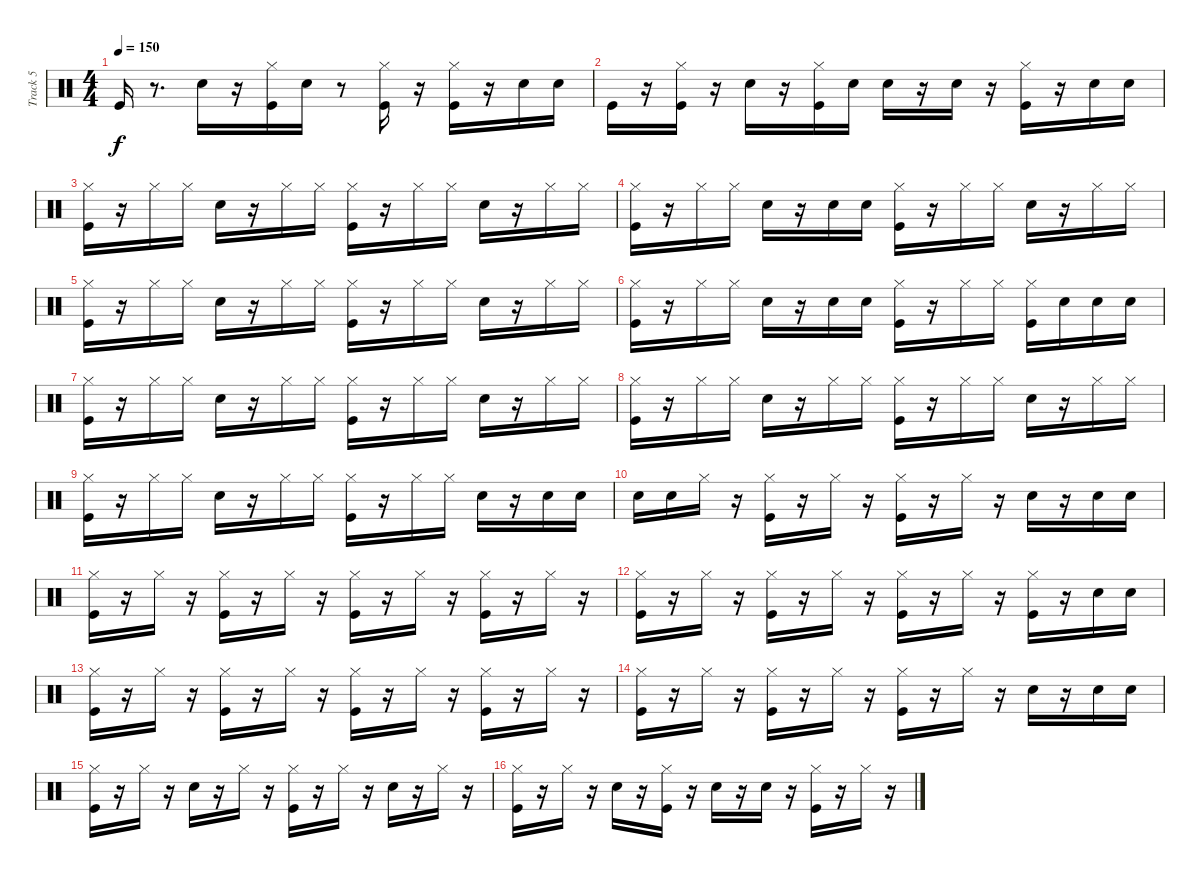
\track ("Track 5" "Track 5") {instrument percussion}
\staff {score}
\articulation defaults
\ts (4 4)
\tempo 150
\clef neutral
\ks c "Kick (hit)".16{dy f}
r.8{d} "Snare (hit) 2".16 r.16 ("Kick (hit)" "Hi-Hat (closed)").16 "Snare (hit) 2".16 r.8 ("Kick (hit)" "Hi-Hat (closed)").16 r.16 ("Kick (hit)" "Hi-Hat (closed)").16 r.16 "Snare (hit) 2".16 "Snare (hit) 2".16 |
"Kick (hit)".16 r.16 ("Kick (hit)" "Hi-Hat (closed)").16 r.16 "Snare (hit) 2".16 r.16 ("Kick (hit)" "Hi-Hat (closed)").16 "Snare (hit) 2".16 "Snare (hit) 2".16 r.16 "Snare (hit) 2".16 r.16 ("Kick (hit)" "Hi-Hat (closed)").16 r.16 "Snare (hit) 2".16 "Snare (hit) 2".16 |
("Kick (hit)" "Hi-Hat (closed)").16 r.16 "Hi-Hat (closed)".16 "Hi-Hat (closed)".16 "Snare (hit) 2".16 r.16 "Hi-Hat (closed)".16 "Hi-Hat (closed)".16 ("Kick (hit)" "Hi-Hat (closed)").16 r.16 "Hi-Hat (closed)".16 "Hi-Hat (closed)".16 "Snare (hit) 2".16 r.16 "Hi-Hat (closed)".16 "Hi-Hat (closed)".16 |
("Kick (hit)" "Hi-Hat (closed)").16 r.16 "Hi-Hat (closed)".16 "Hi-Hat (closed)".16 "Snare (hit) 2".16 r.16 "Snare (hit) 2".16 "Snare (hit) 2".16 ("Kick (hit)" "Hi-Hat (closed)").16 r.16 "Hi-Hat (closed)".16 "Hi-Hat (closed)".16 "Snare (hit) 2".16 r.16 "Hi-Hat (closed)".16 "Hi-Hat (closed)".16 |
("Kick (hit)" "Hi-Hat (closed)").16 r.16 "Hi-Hat (closed)".16 "Hi-Hat (closed)".16 "Snare (hit) 2".16 r.16 "Hi-Hat (closed)".16 "Hi-Hat (closed)".16 ("Kick (hit)" "Hi-Hat (closed)").16 r.16 "Hi-Hat (closed)".16 "Hi-Hat (closed)".16 "Snare (hit) 2".16 r.16 "Hi-Hat (closed)".16 "Hi-Hat (closed)".16 |
("Kick (hit)" "Hi-Hat (closed)").16 r.16 "Hi-Hat (closed)".16 "Hi-Hat (closed)".16 "Snare (hit) 2".16 r.16 "Snare (hit) 2".16 "Snare (hit) 2".16 ("Kick (hit)" "Hi-Hat (closed)").16 r.16 "Hi-Hat (closed)".16 "Hi-Hat (closed)".16 ("Kick (hit)" "Hi-Hat (closed)").16 "Snare (hit) 2".16 "Snare (hit) 2".16 "Snare (hit) 2".16 |
("Kick (hit)" "Hi-Hat (closed)").16 r.16 "Hi-Hat (closed)".16 "Hi-Hat (closed)".16 "Snare (hit) 2".16 r.16 "Hi-Hat (closed)".16 "Hi-Hat (closed)".16 ("Kick (hit)" "Hi-Hat (closed)").16 r.16 "Hi-Hat (closed)".16 "Hi-Hat (closed)".16 "Snare (hit) 2".16 r.16 "Hi-Hat (closed)".16 "Hi-Hat (closed)".16 |
("Kick (hit)" "Hi-Hat (closed)").16 r.16 "Hi-Hat (closed)".16 "Hi-Hat (closed)".16 "Snare (hit) 2".16 r.16 "Hi-Hat (closed)".16 "Hi-Hat (closed)".16 ("Kick (hit)" "Hi-Hat (closed)").16 r.16 "Hi-Hat (closed)".16 "Hi-Hat (closed)".16 "Snare (hit) 2".16 r.16 "Hi-Hat (closed)".16 "Hi-Hat (closed)".16 |
("Kick (hit)" "Hi-Hat (closed)").16 r.16 "Hi-Hat (closed)".16 "Hi-Hat (closed)".16 "Snare (hit) 2".16 r.16 "Hi-Hat (closed)".16 "Hi-Hat (closed)".16 ("Kick (hit)" "Hi-Hat (closed)").16 r.16 "Hi-Hat (closed)".16 "Hi-Hat (closed)".16 "Snare (hit) 2".16 r.16 "Snare (hit) 2".16 "Snare (hit) 2".16 |
"Snare (hit) 2".16 "Snare (hit) 2".16 "Hi-Hat (closed)".16 r.16 ("Kick (hit)" "Hi-Hat (closed)").16 r.16 "Hi-Hat (closed)".16 r.16 ("Kick (hit)" "Hi-Hat (closed)").16 r.16 "Hi-Hat (closed)".16 r.16 "Snare (hit) 2".16 r.16 "Snare (hit) 2".16 "Snare (hit) 2".16 |
("Kick (hit)" "Hi-Hat (closed)").16 r.16 "Hi-Hat (closed)".16 r.16 ("Kick (hit)" "Hi-Hat (closed)").16 r.16 "Hi-Hat (closed)".16 r.16 ("Kick (hit)" "Hi-Hat (closed)").16 r.16 "Hi-Hat (closed)".16 r.16 ("Kick (hit)" "Hi-Hat (closed)").16 r.16 "Hi-Hat (closed)".16 r.16 |
("Kick (hit)" "Hi-Hat (closed)").16 r.16 "Hi-Hat (closed)".16 r.16 ("Kick (hit)" "Hi-Hat (closed)").16 r.16 "Hi-Hat (closed)".16 r.16 ("Kick (hit)" "Hi-Hat (closed)").16 r.16 "Hi-Hat (closed)".16 r.16 ("Kick (hit)" "Hi-Hat (closed)").16 r.16 "Snare (hit) 2".16 "Snare (hit) 2".16 |
("Kick (hit)" "Hi-Hat (closed)").16 r.16 "Hi-Hat (closed)".16 r.16 ("Kick (hit)" "Hi-Hat (closed)").16 r.16 "Hi-Hat (closed)".16 r.16 ("Kick (hit)" "Hi-Hat (closed)").16 r.16 "Hi-Hat (closed)".16 r.16 ("Kick (hit)" "Hi-Hat (closed)").16 r.16 "Hi-Hat (closed)".16 r.16 |
("Kick (hit)" "Hi-Hat (closed)").16 r.16 "Hi-Hat (closed)".16 r.16 ("Kick (hit)" "Hi-Hat (closed)").16 r.16 "Hi-Hat (closed)".16 r.16 ("Kick (hit)" "Hi-Hat (closed)").16 r.16 "Hi-Hat (closed)".16 r.16 "Snare (hit) 2".16 r.16 "Snare (hit) 2".16 "Snare (hit) 2".16 |
("Kick (hit)" "Hi-Hat (closed)").16 r.16 "Hi-Hat (closed)".16 r.16 "Snare (hit) 2".16 r.16 "Hi-Hat (closed)".16 r.16 ("Kick (hit)" "Hi-Hat (closed)").16 r.16 "Hi-Hat (closed)".16 r.16 "Snare (hit) 2".16 r.16 "Hi-Hat (closed)".16 r.16 |
("Kick (hit)" "Hi-Hat (closed)").16 r.16 "Hi-Hat (closed)".16 r.16 "Snare (hit) 2".16 r.16 ("Kick (hit)" "Hi-Hat (closed)").16 r.16 "Snare (hit) 2".16 r.16 "Snare (hit) 2".16 r.16 ("Kick (hit)" "Hi-Hat (closed)").16 r.16 "Hi-Hat (closed)".16 r.16
